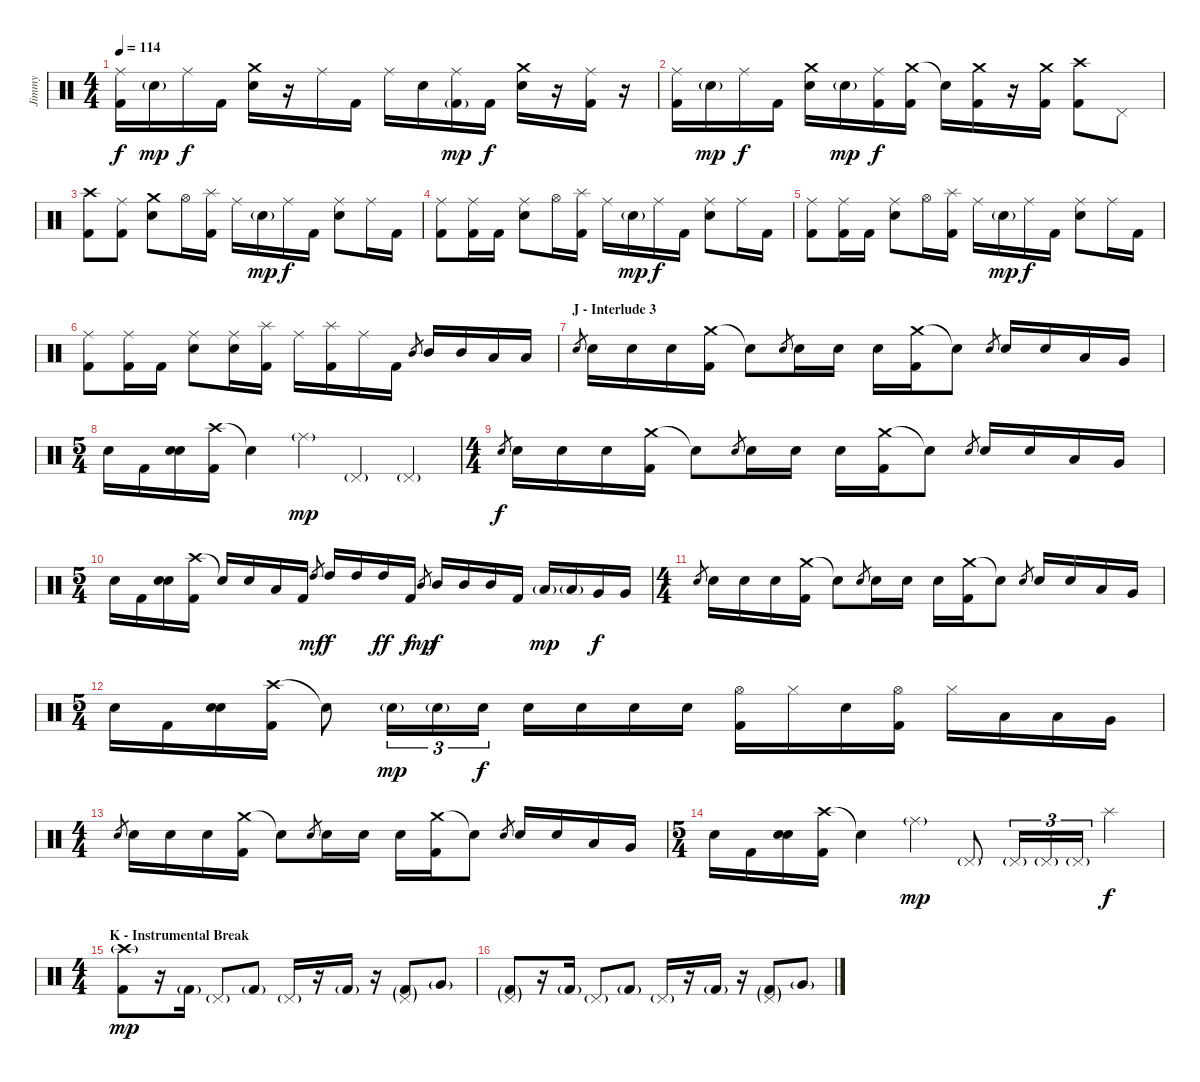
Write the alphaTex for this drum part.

\track ("Jimmy" "Jimmy") {instrument percussion}
\staff {score}
\articulation defaults
\ts (4 4)
\tempo 114
\clef neutral
\ks c
("Ride (middle)" "Kick (hit) 2").16{dy f} "Electric Snare (hit)"{g}.16{dy mp} "Ride (middle)".16{dy f} "Kick (hit) 2".16 ("Crash medium (hit)" "Electric Snare (hit)").16 r.16 "Ride (middle)".16 "Kick (hit) 2".16 "Ride (middle)".16 "Electric Snare (hit)".16 ("Ride (middle)" "Kick (hit) 2"{g}).16{dy mp} "Kick (hit) 2".16{dy f} ("Crash medium (hit)" "Electric Snare (hit)").16 r.16 ("Ride (middle)" "Kick (hit) 2").16 r.16 |
("Ride (middle)" "Kick (hit) 2").16 "Electric Snare (hit)"{g}.16{dy mp} "Ride (middle)".16{dy f} "Kick (hit) 2".16 ("Crash medium (hit)" "Electric Snare (hit)").16 "Electric Snare (hit)"{g}.16{dy mp} ("Ride (middle)" "Kick (hit) 2").16{dy f} ("Crash medium (hit)" "Kick (hit) 2").16 "Snare (hit)"{t}.16 ("Crash medium (hit)" "Kick (hit) 2").16 r.16 ("Crash medium (hit)" "Kick (hit) 2").16 ("Crash high (hit)" "Kick (hit) 2").8 "Pedal Hi-Hat (hit)".8 |
("Crash high (hit)" "Kick (hit) 2").8 ("Ride (middle)" "Kick (hit) 2").8 ("Crash medium (hit)" "Electric Snare (hit)").8 "Hi-Hat (open)".16 ("Splash (hit)" "Kick (hit) 2").16 "Ride (middle)".16 "Electric Snare (hit)"{g}.16{dy mp} "Ride (middle)".16{dy f} "Kick (hit) 2".16 ("Ride (middle)" "Electric Snare (hit)").8 "Ride (middle)".16 "Kick (hit) 2".16 |
("Ride (middle)" "Kick (hit) 2").8 ("Ride (middle)" "Kick (hit) 2").16 "Kick (hit) 2".16 ("Ride (middle)" "Electric Snare (hit)").8 "Hi-Hat (open)".16 ("Splash (hit)" "Kick (hit) 2").16 "Ride (middle)".16 "Electric Snare (hit)"{g}.16{dy mp} "Ride (middle)".16{dy f} "Kick (hit) 2".16 ("Ride (middle)" "Electric Snare (hit)").8 "Ride (middle)".16 "Kick (hit) 2".16 |
("Ride (middle)" "Kick (hit) 2").8 ("Ride (middle)" "Kick (hit) 2").16 "Kick (hit) 2".16 ("Ride (middle)" "Electric Snare (hit)").8 "Hi-Hat (open)".16 ("Splash (hit)" "Kick (hit) 2").16 "Ride (middle)".16 "Electric Snare (hit)"{g}.16{dy mp} "Ride (middle)".16{dy f} "Kick (hit) 2".16 ("Ride (middle)" "Electric Snare (hit)").8 "Ride (middle)".16 "Kick (hit) 2".16 |
("Ride (middle)" "Kick (hit) 2").8 ("Ride (middle)" "Kick (hit) 2").16 "Kick (hit) 2".16 ("Ride (middle)" "Electric Snare (hit)").8 ("Ride (middle)" "Electric Snare (hit)").16 ("Splash (hit)" "Kick (hit) 2").16 "Ride (middle)".16 ("Splash (hit)" "Kick (hit) 2").16 "Ride (middle)".16 "Kick (hit) 2".16 "Mid Tom (hit)".8{gr} "Mid Tom (hit)".16 "Mid Tom (hit)".16 "Low Tom (hit)".16 "Low Tom (hit)".16 |
\section ("" "J - Interlude 3")
"Electric Snare (hit)".8{gr} "Electric Snare (hit)".16 "Electric Snare (hit)".16 "Electric Snare (hit)".16 ("Crash medium (hit)" "Kick (hit) 2").16 "Snare (hit)"{t}.8 "Electric Snare (hit)".8{gr} "Electric Snare (hit)".16 "Electric Snare (hit)".16 "Electric Snare (hit)".16 ("Crash medium (hit)" "Kick (hit) 2").16 "Snare (hit)"{t}.8 "Electric Snare (hit)".8{gr} "Electric Snare (hit)".16 "Electric Snare (hit)".16 "Low Tom (hit)".16 "Very Low Tom (hit)".16 |
\ts (5 4)
"Electric Snare (hit)".16 "Kick (hit) 2".16 ("Electric Snare (hit)" "Electric Snare (hit)").16 ("Crash high (hit)" "Kick (hit) 2").16 "Snare (hit)"{t}.4 "Ride (middle)"{g}.4{dy mp} "Pedal Hi-Hat (hit)"{g}.4 "Pedal Hi-Hat (hit)"{g}.4 |
\ts (4 4)
"Electric Snare (hit)".8{gr dy f} "Electric Snare (hit)".16 "Electric Snare (hit)".16 "Electric Snare (hit)".16 ("Crash medium (hit)" "Kick (hit) 2").16 "Snare (hit)"{t}.8 "Electric Snare (hit)".8{gr} "Electric Snare (hit)".16 "Electric Snare (hit)".16 "Electric Snare (hit)".16 ("Crash medium (hit)" "Kick (hit) 2").16 "Snare (hit)"{t}.8 "Electric Snare (hit)".8{gr} "Electric Snare (hit)".16 "Electric Snare (hit)".16 "Low Tom (hit)".16 "Very Low Tom (hit)".16 |
\ts (5 4)
"Electric Snare (hit)".16 "Kick (hit) 2".16 ("Electric Snare (hit)" "Electric Snare (hit)").16 ("Crash high (hit)" "Kick (hit) 2").16 "Snare (hit)"{t}.16 "Electric Snare (hit)".16 "Low Tom (hit)".16 "Kick (hit) 2".16 "High Tom (hit)".8{gr dy mf} "High Tom (hit)".16{dy f} "High Tom (hit)".16 "High Tom (hit)".16{dy ff} "Kick (hit) 2".16{dy f} "Mid Tom (hit)".8{gr dy mp} "Mid Tom (hit)".16{dy f} "Mid Tom (hit)".16 "Mid Tom (hit)".16 "Kick (hit) 2".16 "Low Tom (hit)"{g}.16{dy mp} "Low Tom (hit)"{g}.16 "Very Low Tom (hit)".16{dy f} "Very Low Tom (hit)".16 |
\ts (4 4)
"Electric Snare (hit)".8{gr} "Electric Snare (hit)".16 "Electric Snare (hit)".16 "Electric Snare (hit)".16 ("Crash medium (hit)" "Kick (hit) 2").16 "Snare (hit)"{t}.8 "Electric Snare (hit)".8{gr} "Electric Snare (hit)".16 "Electric Snare (hit)".16 "Electric Snare (hit)".16 ("Crash medium (hit)" "Kick (hit) 2").16 "Snare (hit)"{t}.8 "Electric Snare (hit)".8{gr} "Electric Snare (hit)".16 "Electric Snare (hit)".16 "Low Tom (hit)".16 "Very Low Tom (hit)".16 |
\ts (5 4)
"Electric Snare (hit)".16 "Kick (hit) 2".16 ("Electric Snare (hit)" "Electric Snare (hit)").16 ("Crash high (hit)" "Kick (hit) 2").16 "Snare (hit)"{t}.8 "Electric Snare (hit)"{g}.16{tu (3 2) dy mp} "Electric Snare (hit)"{g}.16{tu (3 2)} "Electric Snare (hit)".16{tu (3 2) dy f} "Electric Snare (hit)".16 "Electric Snare (hit)".16 "Electric Snare (hit)".16 "Electric Snare (hit)".16 ("Hi-Hat (open)" "Kick (hit) 2").16 "Hi-Hat (closed)".16 "Electric Snare (hit)".16 ("Hi-Hat (open)" "Kick (hit) 2").16 "Hi-Hat (closed)".16 "Low Tom (hit)".16 "Low Tom (hit)".16 "Very Low Tom (hit)".16 |
\ts (4 4)
"Electric Snare (hit)".8{gr} "Electric Snare (hit)".16 "Electric Snare (hit)".16 "Electric Snare (hit)".16 ("Crash medium (hit)" "Kick (hit) 2").16 "Snare (hit)"{t}.8 "Electric Snare (hit)".8{gr} "Electric Snare (hit)".16 "Electric Snare (hit)".16 "Electric Snare (hit)".16 ("Crash medium (hit)" "Kick (hit) 2").16 "Snare (hit)"{t}.8 "Electric Snare (hit)".8{gr} "Electric Snare (hit)".16 "Electric Snare (hit)".16 "Low Tom (hit)".16 "Very Low Tom (hit)".16 |
\ts (5 4)
"Electric Snare (hit)".16 "Kick (hit) 2".16 ("Electric Snare (hit)" "Electric Snare (hit)").16 ("Crash high (hit)" "Kick (hit) 2").16 "Snare (hit)"{t}.4 "Ride (middle)"{g}.4{dy mp} "Pedal Hi-Hat (hit)"{g}.8 "Pedal Hi-Hat (hit)"{g}.16{tu (3 2)} "Pedal Hi-Hat (hit)"{g}.16{tu (3 2)} "Pedal Hi-Hat (hit)"{g}.16{tu (3 2)} "Splash (hit)".4{dy f} |
\ts (4 4)
\section ("" "K - Instrumental Break")
("Crash high (hit)"{g} "Kick (hit) 2").8{dy mp} r.16 "Kick (hit) 2"{g}.16 "Pedal Hi-Hat (hit)"{g}.8 "Kick (hit) 2"{g}.8 "Pedal Hi-Hat (hit)"{g}.16 r.16 "Kick (hit) 2"{g}.16 r.16 ("Pedal Hi-Hat (hit)"{g} "Kick (hit) 2"{g}).8 "Very Low Tom (hit)"{g}.8 |
("Pedal Hi-Hat (hit)"{g} "Kick (hit) 2"{g}).8 r.16 "Kick (hit) 2"{g}.16 "Pedal Hi-Hat (hit)"{g}.8 "Kick (hit) 2"{g}.8 "Pedal Hi-Hat (hit)"{g}.16 r.16 "Kick (hit) 2"{g}.16 r.16 ("Pedal Hi-Hat (hit)"{g} "Kick (hit) 2"{g}).8 "Very Low Tom (hit)"{g}.8
